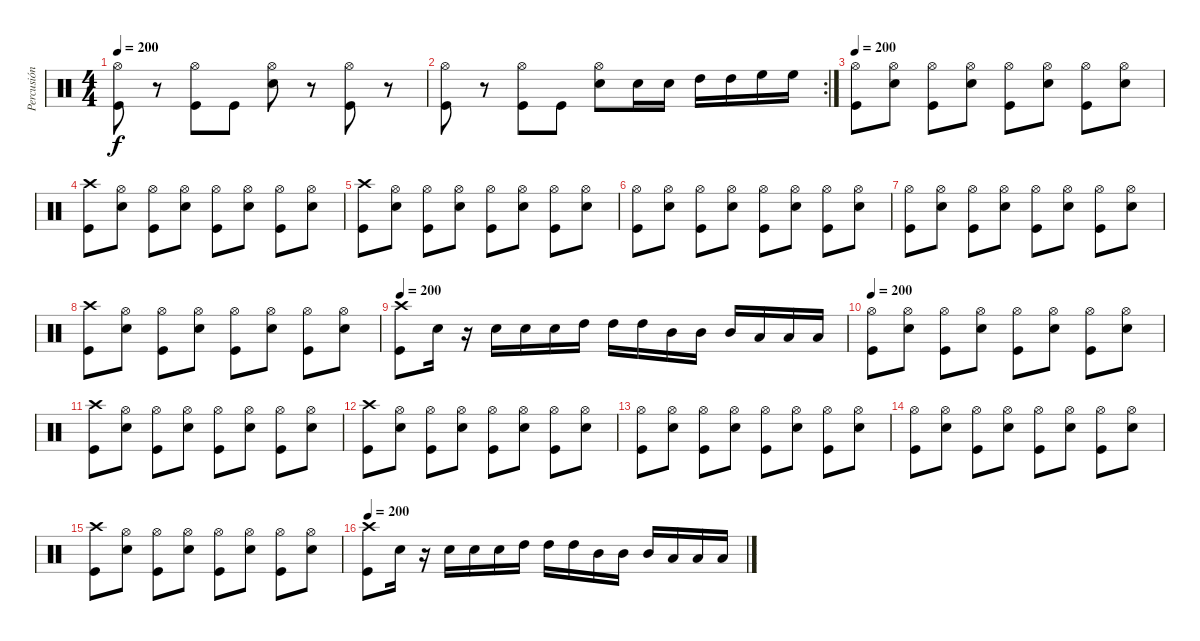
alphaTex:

\track ("Percusión" "Percusión") {instrument percussion}
\staff {score}
\articulation defaults
\ts (4 4)
\tempo 200
\clef neutral
\ks c
("Hi-Hat (open)" "Kick (hit)").8{dy f} r.8 ("Hi-Hat (open)" "Kick (hit)").8 "Kick (hit)".8 ("Hi-Hat (open)" "Snare (hit) 2").8 r.8 ("Hi-Hat (open)" "Kick (hit)").8 r.8 |
\rc 2
("Hi-Hat (open)" "Kick (hit)").8 r.8 ("Hi-Hat (open)" "Kick (hit)").8 "Kick (hit)".8 ("Hi-Hat (open)" "Snare (hit) 2").8 "Snare (hit) 2".16 "Snare (hit) 2".16 "High Tom (hit)".16 "High Tom (hit)".16 "High Floor Tom (hit)".16 "High Floor Tom (hit)".16 |
\tempo 200
("Hi-Hat (open)" "Kick (hit)").8 ("Hi-Hat (open)" "Snare (hit) 2").8 ("Hi-Hat (open)" "Kick (hit)").8 ("Hi-Hat (open)" "Snare (hit) 2").8 ("Hi-Hat (open)" "Kick (hit)").8 ("Hi-Hat (open)" "Snare (hit) 2").8 ("Hi-Hat (open)" "Kick (hit)").8 ("Hi-Hat (open)" "Snare (hit) 2").8 |
("Crash high (hit)" "Kick (hit)").8 ("Hi-Hat (open)" "Snare (hit) 2").8 ("Hi-Hat (open)" "Kick (hit)").8 ("Hi-Hat (open)" "Snare (hit) 2").8 ("Hi-Hat (open)" "Kick (hit)").8 ("Hi-Hat (open)" "Snare (hit) 2").8 ("Hi-Hat (open)" "Kick (hit)").8 ("Hi-Hat (open)" "Snare (hit) 2").8 |
("Crash high (hit)" "Kick (hit)").8 ("Hi-Hat (open)" "Snare (hit) 2").8 ("Hi-Hat (open)" "Kick (hit)").8 ("Hi-Hat (open)" "Snare (hit) 2").8 ("Hi-Hat (open)" "Kick (hit)").8 ("Hi-Hat (open)" "Snare (hit) 2").8 ("Hi-Hat (open)" "Kick (hit)").8 ("Hi-Hat (open)" "Snare (hit) 2").8 |
("Hi-Hat (open)" "Kick (hit)").8 ("Hi-Hat (open)" "Snare (hit) 2").8 ("Hi-Hat (open)" "Kick (hit)").8 ("Hi-Hat (open)" "Snare (hit) 2").8 ("Hi-Hat (open)" "Kick (hit)").8 ("Hi-Hat (open)" "Snare (hit) 2").8 ("Hi-Hat (open)" "Kick (hit)").8 ("Hi-Hat (open)" "Snare (hit) 2").8 |
("Hi-Hat (open)" "Kick (hit)").8 ("Hi-Hat (open)" "Snare (hit) 2").8 ("Hi-Hat (open)" "Kick (hit)").8 ("Hi-Hat (open)" "Snare (hit) 2").8 ("Hi-Hat (open)" "Kick (hit)").8 ("Hi-Hat (open)" "Snare (hit) 2").8 ("Hi-Hat (open)" "Kick (hit)").8 ("Hi-Hat (open)" "Snare (hit) 2").8 |
("Crash high (hit)" "Kick (hit)").8 ("Hi-Hat (open)" "Snare (hit) 2").8 ("Hi-Hat (open)" "Kick (hit)").8 ("Hi-Hat (open)" "Snare (hit) 2").8 ("Hi-Hat (open)" "Kick (hit)").8 ("Hi-Hat (open)" "Snare (hit) 2").8 ("Hi-Hat (open)" "Kick (hit)").8 ("Hi-Hat (open)" "Snare (hit) 2").8 |
\tempo 200
("Crash high (hit)" "Kick (hit)").8 "Snare (hit) 2".16 r.16 "Snare (hit) 2".16 "Snare (hit) 2".16 "Snare (hit) 2".16 "High Tom (hit)".16 "High Tom (hit)".16 "High Tom (hit)".16 "Mid Tom (hit)".16 "Mid Tom (hit)".16 "Mid Tom (hit)".16 "Low Tom (hit)".16 "Low Tom (hit)".16 "Low Tom (hit)".16 |
\tempo 200
("Hi-Hat (open)" "Kick (hit)").8 ("Hi-Hat (open)" "Snare (hit) 2").8 ("Hi-Hat (open)" "Kick (hit)").8 ("Hi-Hat (open)" "Snare (hit) 2").8 ("Hi-Hat (open)" "Kick (hit)").8 ("Hi-Hat (open)" "Snare (hit) 2").8 ("Hi-Hat (open)" "Kick (hit)").8 ("Hi-Hat (open)" "Snare (hit) 2").8 |
("Crash high (hit)" "Kick (hit)").8 ("Hi-Hat (open)" "Snare (hit) 2").8 ("Hi-Hat (open)" "Kick (hit)").8 ("Hi-Hat (open)" "Snare (hit) 2").8 ("Hi-Hat (open)" "Kick (hit)").8 ("Hi-Hat (open)" "Snare (hit) 2").8 ("Hi-Hat (open)" "Kick (hit)").8 ("Hi-Hat (open)" "Snare (hit) 2").8 |
("Crash high (hit)" "Kick (hit)").8 ("Hi-Hat (open)" "Snare (hit) 2").8 ("Hi-Hat (open)" "Kick (hit)").8 ("Hi-Hat (open)" "Snare (hit) 2").8 ("Hi-Hat (open)" "Kick (hit)").8 ("Hi-Hat (open)" "Snare (hit) 2").8 ("Hi-Hat (open)" "Kick (hit)").8 ("Hi-Hat (open)" "Snare (hit) 2").8 |
("Hi-Hat (open)" "Kick (hit)").8 ("Hi-Hat (open)" "Snare (hit) 2").8 ("Hi-Hat (open)" "Kick (hit)").8 ("Hi-Hat (open)" "Snare (hit) 2").8 ("Hi-Hat (open)" "Kick (hit)").8 ("Hi-Hat (open)" "Snare (hit) 2").8 ("Hi-Hat (open)" "Kick (hit)").8 ("Hi-Hat (open)" "Snare (hit) 2").8 |
("Hi-Hat (open)" "Kick (hit)").8 ("Hi-Hat (open)" "Snare (hit) 2").8 ("Hi-Hat (open)" "Kick (hit)").8 ("Hi-Hat (open)" "Snare (hit) 2").8 ("Hi-Hat (open)" "Kick (hit)").8 ("Hi-Hat (open)" "Snare (hit) 2").8 ("Hi-Hat (open)" "Kick (hit)").8 ("Hi-Hat (open)" "Snare (hit) 2").8 |
("Crash high (hit)" "Kick (hit)").8 ("Hi-Hat (open)" "Snare (hit) 2").8 ("Hi-Hat (open)" "Kick (hit)").8 ("Hi-Hat (open)" "Snare (hit) 2").8 ("Hi-Hat (open)" "Kick (hit)").8 ("Hi-Hat (open)" "Snare (hit) 2").8 ("Hi-Hat (open)" "Kick (hit)").8 ("Hi-Hat (open)" "Snare (hit) 2").8 |
\tempo 200
("Crash high (hit)" "Kick (hit)").8 "Snare (hit) 2".16 r.16 "Snare (hit) 2".16 "Snare (hit) 2".16 "Snare (hit) 2".16 "High Tom (hit)".16 "High Tom (hit)".16 "High Tom (hit)".16 "Mid Tom (hit)".16 "Mid Tom (hit)".16 "Mid Tom (hit)".16 "Low Tom (hit)".16 "Low Tom (hit)".16 "Low Tom (hit)".16
